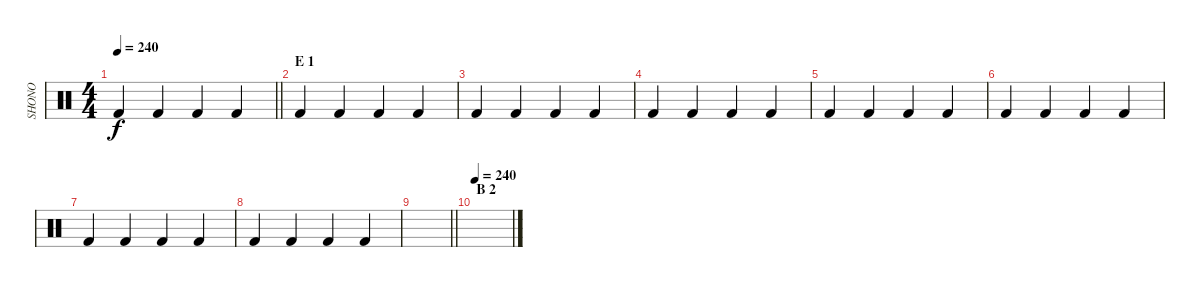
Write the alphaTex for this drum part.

\track ("SHONO" "SHONO") {instrument percussion}
\staff {score}
\articulation defaults
\ts (4 4)
\tempo 240
\clef neutral
\barLineRight lightlight
\ks c "Kick (hit) 2".4{dy f} "Kick (hit) 2".4 "Kick (hit) 2".4 "Kick (hit) 2".4
|
\section ("" "E 1")
"Kick (hit) 2".4 "Kick (hit) 2".4 "Kick (hit) 2".4 "Kick (hit) 2".4 |
"Kick (hit) 2".4 "Kick (hit) 2".4 "Kick (hit) 2".4 "Kick (hit) 2".4 |
"Kick (hit) 2".4 "Kick (hit) 2".4 "Kick (hit) 2".4 "Kick (hit) 2".4 |
"Kick (hit) 2".4 "Kick (hit) 2".4 "Kick (hit) 2".4 "Kick (hit) 2".4 |
"Kick (hit) 2".4 "Kick (hit) 2".4 "Kick (hit) 2".4 "Kick (hit) 2".4 |
"Kick (hit) 2".4 "Kick (hit) 2".4 "Kick (hit) 2".4 "Kick (hit) 2".4 |
"Kick (hit) 2".4 "Kick (hit) 2".4 "Kick (hit) 2".4 "Kick (hit) 2".4 |
\barLineRight lightlight
|
\section ("" "B 2")
\tempo 240
